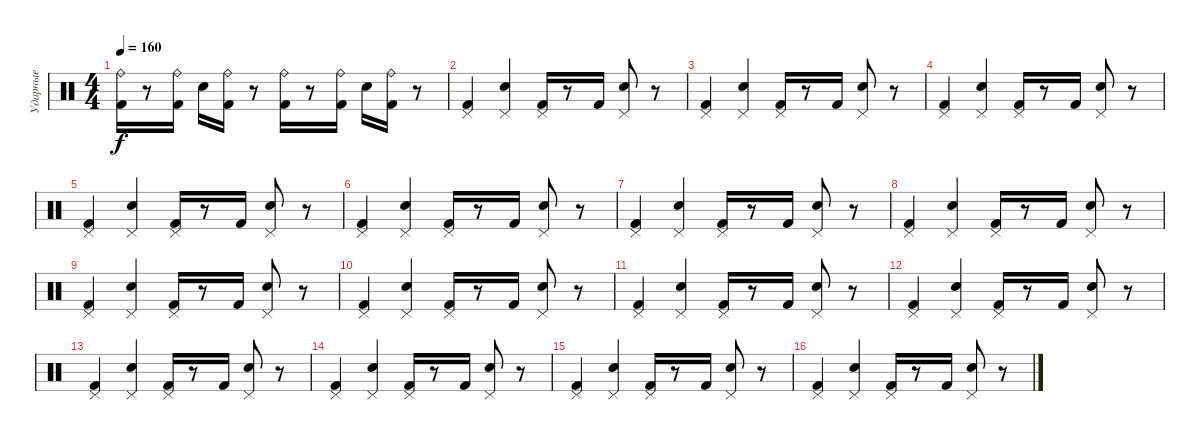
\track ("Ударные" "Ударные") {instrument percussion}
\staff {score}
\articulation defaults
\ts (4 4)
\tempo 160
\clef neutral
\ks c
("Ride (bell)" "Kick (hit) 2").16{dy f} r.8 ("Ride (bell)" "Kick (hit) 2").16 "Snare (hit) 2".16 ("Ride (bell)" "Kick (hit) 2").16 r.8 ("Ride (bell)" "Kick (hit) 2").16 r.8 ("Ride (bell)" "Kick (hit) 2").16 "Snare (hit) 2".16 ("Ride (bell)" "Kick (hit) 2").16 r.8 |
("Pedal Hi-Hat (hit)" "Kick (hit) 2").4 ("Pedal Hi-Hat (hit)" "Snare (hit) 2").4 ("Pedal Hi-Hat (hit)" "Kick (hit) 2").16 r.8 "Kick (hit) 2".16 ("Pedal Hi-Hat (hit)" "Snare (hit) 2").8 r.8 |
("Pedal Hi-Hat (hit)" "Kick (hit) 2").4 ("Pedal Hi-Hat (hit)" "Snare (hit) 2").4 ("Pedal Hi-Hat (hit)" "Kick (hit) 2").16 r.8 "Kick (hit) 2".16 ("Pedal Hi-Hat (hit)" "Snare (hit) 2").8 r.8 |
("Pedal Hi-Hat (hit)" "Kick (hit) 2").4 ("Pedal Hi-Hat (hit)" "Snare (hit) 2").4 ("Pedal Hi-Hat (hit)" "Kick (hit) 2").16 r.8 "Kick (hit) 2".16 ("Pedal Hi-Hat (hit)" "Snare (hit) 2").8 r.8 |
("Pedal Hi-Hat (hit)" "Kick (hit) 2").4 ("Pedal Hi-Hat (hit)" "Snare (hit) 2").4 ("Pedal Hi-Hat (hit)" "Kick (hit) 2").16 r.8 "Kick (hit) 2".16 ("Pedal Hi-Hat (hit)" "Snare (hit) 2").8 r.8 |
("Pedal Hi-Hat (hit)" "Kick (hit) 2").4 ("Pedal Hi-Hat (hit)" "Snare (hit) 2").4 ("Pedal Hi-Hat (hit)" "Kick (hit) 2").16 r.8 "Kick (hit) 2".16 ("Pedal Hi-Hat (hit)" "Snare (hit) 2").8 r.8 |
("Pedal Hi-Hat (hit)" "Kick (hit) 2").4 ("Pedal Hi-Hat (hit)" "Snare (hit) 2").4 ("Pedal Hi-Hat (hit)" "Kick (hit) 2").16 r.8 "Kick (hit) 2".16 ("Pedal Hi-Hat (hit)" "Snare (hit) 2").8 r.8 |
("Pedal Hi-Hat (hit)" "Kick (hit) 2").4 ("Pedal Hi-Hat (hit)" "Snare (hit) 2").4 ("Pedal Hi-Hat (hit)" "Kick (hit) 2").16 r.8 "Kick (hit) 2".16 ("Pedal Hi-Hat (hit)" "Snare (hit) 2").8 r.8 |
("Pedal Hi-Hat (hit)" "Kick (hit) 2").4 ("Pedal Hi-Hat (hit)" "Snare (hit) 2").4 ("Pedal Hi-Hat (hit)" "Kick (hit) 2").16 r.8 "Kick (hit) 2".16 ("Pedal Hi-Hat (hit)" "Snare (hit) 2").8 r.8 |
("Pedal Hi-Hat (hit)" "Kick (hit) 2").4 ("Pedal Hi-Hat (hit)" "Snare (hit) 2").4 ("Pedal Hi-Hat (hit)" "Kick (hit) 2").16 r.8 "Kick (hit) 2".16 ("Pedal Hi-Hat (hit)" "Snare (hit) 2").8 r.8 |
("Pedal Hi-Hat (hit)" "Kick (hit) 2").4 ("Pedal Hi-Hat (hit)" "Snare (hit) 2").4 ("Pedal Hi-Hat (hit)" "Kick (hit) 2").16 r.8 "Kick (hit) 2".16 ("Pedal Hi-Hat (hit)" "Snare (hit) 2").8 r.8 |
("Pedal Hi-Hat (hit)" "Kick (hit) 2").4 ("Pedal Hi-Hat (hit)" "Snare (hit) 2").4 ("Pedal Hi-Hat (hit)" "Kick (hit) 2").16 r.8 "Kick (hit) 2".16 ("Pedal Hi-Hat (hit)" "Snare (hit) 2").8 r.8 |
("Pedal Hi-Hat (hit)" "Kick (hit) 2").4 ("Pedal Hi-Hat (hit)" "Snare (hit) 2").4 ("Pedal Hi-Hat (hit)" "Kick (hit) 2").16 r.8 "Kick (hit) 2".16 ("Pedal Hi-Hat (hit)" "Snare (hit) 2").8 r.8 |
("Pedal Hi-Hat (hit)" "Kick (hit) 2").4 ("Pedal Hi-Hat (hit)" "Snare (hit) 2").4 ("Pedal Hi-Hat (hit)" "Kick (hit) 2").16 r.8 "Kick (hit) 2".16 ("Pedal Hi-Hat (hit)" "Snare (hit) 2").8 r.8 |
("Pedal Hi-Hat (hit)" "Kick (hit) 2").4 ("Pedal Hi-Hat (hit)" "Snare (hit) 2").4 ("Pedal Hi-Hat (hit)" "Kick (hit) 2").16 r.8 "Kick (hit) 2".16 ("Pedal Hi-Hat (hit)" "Snare (hit) 2").8 r.8 |
("Pedal Hi-Hat (hit)" "Kick (hit) 2").4 ("Pedal Hi-Hat (hit)" "Snare (hit) 2").4 ("Pedal Hi-Hat (hit)" "Kick (hit) 2").16 r.8 "Kick (hit) 2".16 ("Pedal Hi-Hat (hit)" "Snare (hit) 2").8 r.8
